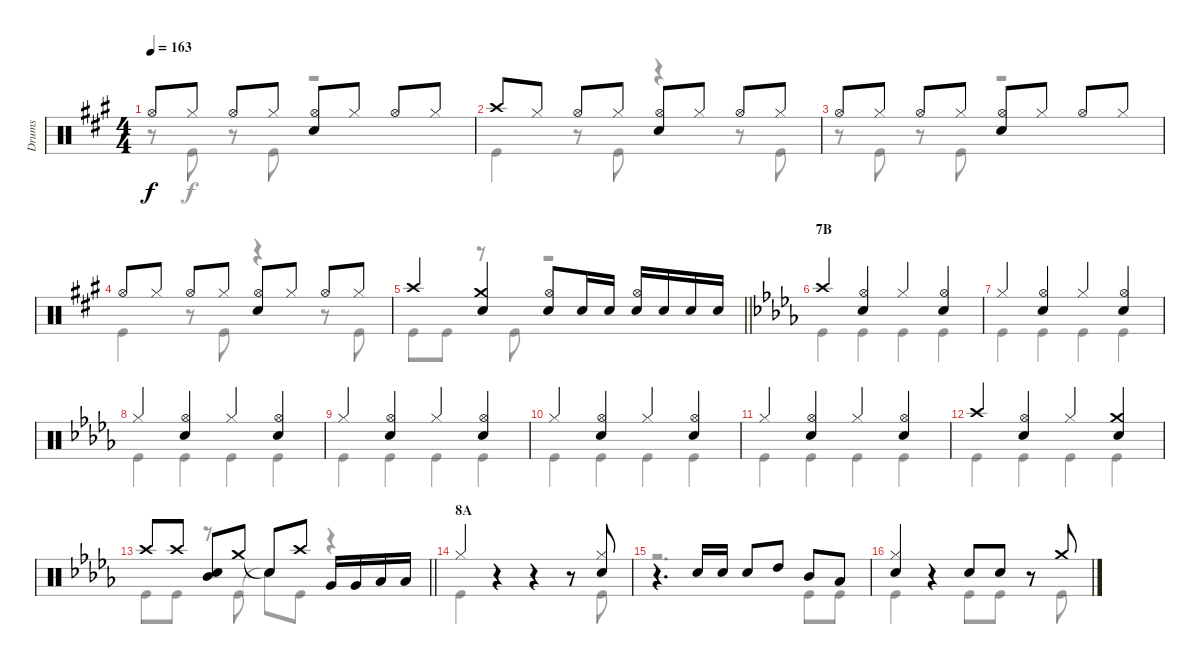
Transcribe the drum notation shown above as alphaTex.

\track ("Drums" "Drums") {instrument percussion}
\staff {score}
\articulation defaults
\voice
\ts (4 4)
\tempo 163
\clef neutral
\ks a "Hi-Hat (open)".8{dy f} "Hi-Hat (closed)".8 "Hi-Hat (open)".8 "Hi-Hat (closed)".8
("Hi-Hat (open)" "Snare (hit) 2").8 "Hi-Hat (closed)".8 "Hi-Hat (open)".8 "Hi-Hat (closed)".8 |
"Crash high (hit)".8 "Hi-Hat (closed)".8 "Hi-Hat (open)".8 "Hi-Hat (closed)".8 ("Hi-Hat (open)" "Snare (hit) 2").8 "Hi-Hat (closed)".8 "Hi-Hat (open)".8 "Hi-Hat (closed)".8 |
"Hi-Hat (open)".8 "Hi-Hat (closed)".8 "Hi-Hat (open)".8 "Hi-Hat (closed)".8 ("Hi-Hat (open)" "Snare (hit) 2").8 "Hi-Hat (closed)".8 "Hi-Hat (open)".8 "Hi-Hat (closed)".8 |
"Hi-Hat (open)".8 "Hi-Hat (closed)".8 "Hi-Hat (open)".8 "Hi-Hat (closed)".8 ("Hi-Hat (open)" "Snare (hit) 2").8 "Hi-Hat (closed)".8 "Hi-Hat (open)".8 "Hi-Hat (closed)".8 |
\barLineRight lightlight "Crash high (hit)".4
("Crash medium (hit)" "Snare (hit) 2").4 ("Hi-Hat (open)" "Snare (hit) 2").8 "Snare (hit) 2".16 "Snare (hit) 2".16 ("Hi-Hat (open)" "Snare (hit) 2").16 "Snare (hit) 2".16 "Snare (hit) 2".16 "Snare (hit) 2".16 |
\section ("" "7B")
\ks db "Crash high (hit)".4
("Hi-Hat (open)" "Snare (hit) 2").4 "Hi-Hat (closed)".4 ("Hi-Hat (open)" "Snare (hit) 2").4 |
"Hi-Hat (closed)".4 ("Hi-Hat (open)" "Snare (hit) 2").4 "Hi-Hat (closed)".4 ("Hi-Hat (open)" "Snare (hit) 2").4 |
"Hi-Hat (closed)".4 ("Hi-Hat (open)" "Snare (hit) 2").4 "Hi-Hat (closed)".4 ("Hi-Hat (open)" "Snare (hit) 2").4 |
"Hi-Hat (closed)".4 ("Hi-Hat (open)" "Snare (hit) 2").4 "Hi-Hat (closed)".4 ("Hi-Hat (open)" "Snare (hit) 2").4 |
"Hi-Hat (closed)".4 ("Hi-Hat (open)" "Snare (hit) 2").4 "Hi-Hat (closed)".4 ("Hi-Hat (open)" "Snare (hit) 2").4 |
"Hi-Hat (closed)".4 ("Hi-Hat (open)" "Snare (hit) 2").4 "Hi-Hat (closed)".4 ("Hi-Hat (open)" "Snare (hit) 2").4 |
"Crash high (hit)".4 ("Hi-Hat (open)" "Snare (hit) 2").4 "Hi-Hat (closed)".4 ("Crash medium (hit)" "Snare (hit) 2").4 |
\barLineRight lightlight "Crash high (hit)".8 "Crash high (hit)".8
("Mid Tom (hit)" "Snare (hit) 2").8 "Crash medium (hit)".8 "Snare (hit)"{t}.8 "Crash high (hit)".8 "Very Low Tom (hit)".16 "Very Low Tom (hit)".16 "Low Floor Tom (hit)".16 "Low Floor Tom (hit)".16 |
\section ("" "8A")
"Hi-Hat (closed)".4 r.4 r.4 r.8 ("Snare (hit) 2" "Hi-Hat (closed)").8 |
r.4{d} "Snare (hit) 2".16 "Snare (hit) 2".16 "Snare (hit) 2".8 "High Tom (hit)".8 "Mid Tom (hit)".8 "Low Tom (hit)".8 |
("Snare (hit) 2" "Hi-Hat (closed)").4 r.4 "Snare (hit) 2".8 "Snare (hit) 2".8 r.8 "Crash medium (hit)".8
\voice
\clef neutral
\ottava regular
\simile none
\ks a
r.8{dy f} "Kick (hit)".8 r.8 "Kick (hit)".8 r.2 |
"Kick (hit)".4 r.8 "Kick (hit)".8 r.4 r.8 "Kick (hit)".8 |
r.8 "Kick (hit)".8 r.8 "Kick (hit)".8 r.2 |
"Kick (hit)".4 r.8 "Kick (hit)".8 r.4 r.8 "Kick (hit)".8 |
\barLineRight lightlight "Kick (hit)".8 "Kick (hit)".8
r.8 "Kick (hit)".8 r.2 |
\ks db "Kick (hit)".4 "Kick (hit)".4 "Kick (hit)".4 "Kick (hit)".4
|
"Kick (hit)".4 "Kick (hit)".4 "Kick (hit)".4 "Kick (hit)".4 |
"Kick (hit)".4 "Kick (hit)".4 "Kick (hit)".4 "Kick (hit)".4 |
"Kick (hit)".4 "Kick (hit)".4 "Kick (hit)".4 "Kick (hit)".4 |
"Kick (hit)".4 "Kick (hit)".4 "Kick (hit)".4 "Kick (hit)".4 |
"Kick (hit)".4 "Kick (hit)".4 "Kick (hit)".4 "Kick (hit)".4 |
"Kick (hit)".4 "Kick (hit)".4 "Kick (hit)".4 "Kick (hit)".4 |
\barLineRight lightlight "Kick (hit)".8 "Kick (hit)".8
r.8 "Kick (hit)".8 "Snare (hit)"{t}.8 "Kick (hit)".8 r.4 |
"Kick (hit)".4 r.4 r.4 r.8 "Kick (hit)".8 |
r.2{d} "Kick (hit)".8 "Kick (hit)".8 |
"Kick (hit)".4 r.4 "Kick (hit)".8 "Kick (hit)".8 r.8 "Kick (hit)".8
